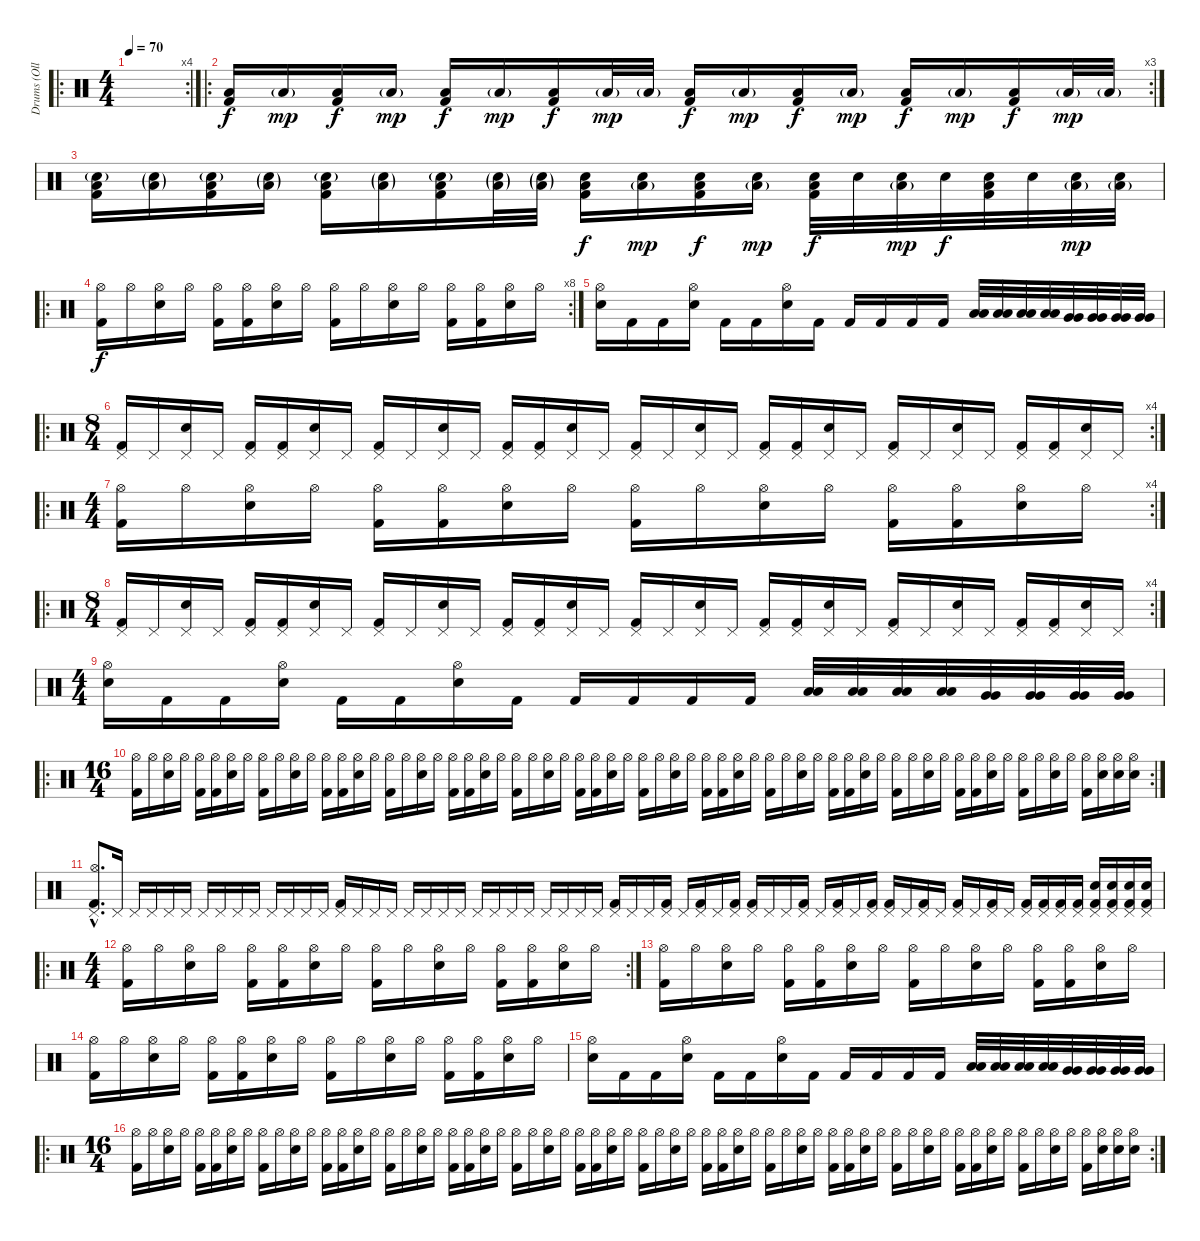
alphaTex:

\track ("Drums (Ollie)" "Drums (Oll") {instrument percussion}
\staff {score}
\articulation defaults
\ro
\rc 4
\ts (4 4)
\tempo 70
\clef neutral
\ks c
|
\ro
\rc 3
("Low Tom (hit)" "Kick (hit) 2").16 "Low Tom (hit)"{g}.16{dy mp} ("Low Tom (hit)" "Kick (hit) 2").16{dy f} "Low Tom (hit)"{g}.16{dy mp} ("Low Tom (hit)" "Kick (hit) 2").16{dy f} "Low Tom (hit)"{g}.16{dy mp} ("Low Tom (hit)" "Kick (hit) 2").16{dy f} "Low Tom (hit)"{g}.32{dy mp} "Low Tom (hit)"{g}.32 ("Low Tom (hit)" "Kick (hit) 2").16{dy f} "Low Tom (hit)"{g}.16{dy mp} ("Low Tom (hit)" "Kick (hit) 2").16{dy f} "Low Tom (hit)"{g}.16{dy mp} ("Low Tom (hit)" "Kick (hit) 2").16{dy f} "Low Tom (hit)"{g}.16{dy mp} ("Low Tom (hit)" "Kick (hit) 2").16{dy f} "Low Tom (hit)"{g}.32{dy mp} "Low Tom (hit)"{g}.32 |
("Electric Snare (hit)"{g} "Low Tom (hit)" "Kick (hit) 2").16 ("Electric Snare (hit)"{g} "Low Tom (hit)"{g}).16 ("Electric Snare (hit)"{g} "Low Tom (hit)" "Kick (hit) 2").16 ("Electric Snare (hit)"{g} "Low Tom (hit)"{g}).16 ("Electric Snare (hit)"{g} "Low Tom (hit)" "Kick (hit) 2").16 ("Electric Snare (hit)"{g} "Low Tom (hit)"{g}).16 ("Electric Snare (hit)"{g} "Low Tom (hit)" "Kick (hit) 2").16 ("Electric Snare (hit)"{g} "Low Tom (hit)"{g}).32 ("Electric Snare (hit)"{g} "Low Tom (hit)"{g}).32 ("Electric Snare (hit)" "Low Tom (hit)" "Kick (hit) 2").16{dy f} ("Electric Snare (hit)" "Low Tom (hit)"{g}).16{dy mp} ("Electric Snare (hit)" "Low Tom (hit)" "Kick (hit) 2").16{dy f} ("Electric Snare (hit)" "Low Tom (hit)"{g}).16{dy mp} ("Electric Snare (hit)" "Low Tom (hit)" "Kick (hit) 2").32{dy f} "Electric Snare (hit)".32 ("Electric Snare (hit)" "Low Tom (hit)"{g}).32{dy mp} "Electric Snare (hit)".32{dy f} ("Electric Snare (hit)" "Low Tom (hit)" "Kick (hit) 2").32 "Electric Snare (hit)".32 ("Electric Snare (hit)" "Low Tom (hit)"{g}).32{dy mp} ("Electric Snare (hit)" "Low Tom (hit)"{g}).32 |
\ro
\rc 8
("Hi-Hat (open)" "Kick (hit) 2").16{dy f} "Hi-Hat (open)".16 ("Hi-Hat (open)" "Electric Snare (hit)").16 "Hi-Hat (open)".16 ("Hi-Hat (open)" "Kick (hit) 2").16 ("Hi-Hat (open)" "Kick (hit) 2").16 ("Hi-Hat (open)" "Electric Snare (hit)").16 "Hi-Hat (open)".16 ("Hi-Hat (open)" "Kick (hit) 2").16 "Hi-Hat (open)".16 ("Hi-Hat (open)" "Electric Snare (hit)").16 "Hi-Hat (open)".16 ("Hi-Hat (open)" "Kick (hit) 2").16 ("Hi-Hat (open)" "Kick (hit) 2").16 ("Hi-Hat (open)" "Electric Snare (hit)").16 "Hi-Hat (open)".16 |
("Hi-Hat (open)" "Electric Snare (hit)").16 "Kick (hit) 2".16 "Kick (hit) 2".16 ("Hi-Hat (open)" "Electric Snare (hit)").16 "Kick (hit) 2".16 "Kick (hit) 2".16 ("Hi-Hat (open)" "Electric Snare (hit)").16 "Kick (hit) 2".16 "Kick (hit) 2".16 "Kick (hit) 2".16 "Kick (hit) 2".16 "Kick (hit) 2".16 ("Low Tom (hit)" "Low Tom (hit)").32 ("Low Tom (hit)" "Low Tom (hit)").32 ("Low Tom (hit)" "Low Tom (hit)").32 ("Low Tom (hit)" "Low Tom (hit)").32 ("Very Low Tom (hit)" "Very Low Tom (hit)").32 ("Very Low Tom (hit)" "Very Low Tom (hit)").32 ("Very Low Tom (hit)" "Very Low Tom (hit)").32 ("Very Low Tom (hit)" "Very Low Tom (hit)").32 |
\ro
\rc 4
\ts (8 4)
("Pedal Hi-Hat (hit)" "Kick (hit) 2").16 "Pedal Hi-Hat (hit)".16 ("Pedal Hi-Hat (hit)" "Electric Snare (hit)").16 "Pedal Hi-Hat (hit)".16 ("Pedal Hi-Hat (hit)" "Kick (hit) 2").16 ("Pedal Hi-Hat (hit)" "Kick (hit) 2").16 ("Pedal Hi-Hat (hit)" "Electric Snare (hit)").16 "Pedal Hi-Hat (hit)".16 ("Pedal Hi-Hat (hit)" "Kick (hit) 2").16 "Pedal Hi-Hat (hit)".16 ("Pedal Hi-Hat (hit)" "Electric Snare (hit)").16 "Pedal Hi-Hat (hit)".16 ("Pedal Hi-Hat (hit)" "Kick (hit) 2").16 ("Pedal Hi-Hat (hit)" "Kick (hit) 2").16 ("Pedal Hi-Hat (hit)" "Electric Snare (hit)").16 "Pedal Hi-Hat (hit)".16 ("Pedal Hi-Hat (hit)" "Kick (hit) 2").16 "Pedal Hi-Hat (hit)".16 ("Pedal Hi-Hat (hit)" "Electric Snare (hit)").16 "Pedal Hi-Hat (hit)".16 ("Pedal Hi-Hat (hit)" "Kick (hit) 2").16 ("Pedal Hi-Hat (hit)" "Kick (hit) 2").16 ("Pedal Hi-Hat (hit)" "Electric Snare (hit)").16 "Pedal Hi-Hat (hit)".16 ("Pedal Hi-Hat (hit)" "Kick (hit) 2").16 "Pedal Hi-Hat (hit)".16 ("Pedal Hi-Hat (hit)" "Electric Snare (hit)").16 "Pedal Hi-Hat (hit)".16 ("Pedal Hi-Hat (hit)" "Kick (hit) 2").16 ("Pedal Hi-Hat (hit)" "Kick (hit) 2").16 ("Pedal Hi-Hat (hit)" "Electric Snare (hit)").16 "Pedal Hi-Hat (hit)".16 |
\ro
\rc 4
\ts (4 4)
("Hi-Hat (open)" "Kick (hit) 2").16 "Hi-Hat (open)".16 ("Hi-Hat (open)" "Electric Snare (hit)").16 "Hi-Hat (open)".16 ("Hi-Hat (open)" "Kick (hit) 2").16 ("Hi-Hat (open)" "Kick (hit) 2").16 ("Hi-Hat (open)" "Electric Snare (hit)").16 "Hi-Hat (open)".16 ("Hi-Hat (open)" "Kick (hit) 2").16 "Hi-Hat (open)".16 ("Hi-Hat (open)" "Electric Snare (hit)").16 "Hi-Hat (open)".16 ("Hi-Hat (open)" "Kick (hit) 2").16 ("Hi-Hat (open)" "Kick (hit) 2").16 ("Hi-Hat (open)" "Electric Snare (hit)").16 "Hi-Hat (open)".16 |
\ro
\rc 4
\ts (8 4)
("Pedal Hi-Hat (hit)" "Kick (hit) 2").16 "Pedal Hi-Hat (hit)".16 ("Pedal Hi-Hat (hit)" "Electric Snare (hit)").16 "Pedal Hi-Hat (hit)".16 ("Pedal Hi-Hat (hit)" "Kick (hit) 2").16 ("Pedal Hi-Hat (hit)" "Kick (hit) 2").16 ("Pedal Hi-Hat (hit)" "Electric Snare (hit)").16 "Pedal Hi-Hat (hit)".16 ("Pedal Hi-Hat (hit)" "Kick (hit) 2").16 "Pedal Hi-Hat (hit)".16 ("Pedal Hi-Hat (hit)" "Electric Snare (hit)").16 "Pedal Hi-Hat (hit)".16 ("Pedal Hi-Hat (hit)" "Kick (hit) 2").16 ("Pedal Hi-Hat (hit)" "Kick (hit) 2").16 ("Pedal Hi-Hat (hit)" "Electric Snare (hit)").16 "Pedal Hi-Hat (hit)".16 ("Pedal Hi-Hat (hit)" "Kick (hit) 2").16 "Pedal Hi-Hat (hit)".16 ("Pedal Hi-Hat (hit)" "Electric Snare (hit)").16 "Pedal Hi-Hat (hit)".16 ("Pedal Hi-Hat (hit)" "Kick (hit) 2").16 ("Pedal Hi-Hat (hit)" "Kick (hit) 2").16 ("Pedal Hi-Hat (hit)" "Electric Snare (hit)").16 "Pedal Hi-Hat (hit)".16 ("Pedal Hi-Hat (hit)" "Kick (hit) 2").16 "Pedal Hi-Hat (hit)".16 ("Pedal Hi-Hat (hit)" "Electric Snare (hit)").16 "Pedal Hi-Hat (hit)".16 ("Pedal Hi-Hat (hit)" "Kick (hit) 2").16 ("Pedal Hi-Hat (hit)" "Kick (hit) 2").16 ("Pedal Hi-Hat (hit)" "Electric Snare (hit)").16 "Pedal Hi-Hat (hit)".16 |
\ts (4 4)
("Hi-Hat (open)" "Electric Snare (hit)").16 "Kick (hit) 2".16 "Kick (hit) 2".16 ("Hi-Hat (open)" "Electric Snare (hit)").16 "Kick (hit) 2".16 "Kick (hit) 2".16 ("Hi-Hat (open)" "Electric Snare (hit)").16 "Kick (hit) 2".16 "Kick (hit) 2".16 "Kick (hit) 2".16 "Kick (hit) 2".16 "Kick (hit) 2".16 ("Low Tom (hit)" "Low Tom (hit)").32 ("Low Tom (hit)" "Low Tom (hit)").32 ("Low Tom (hit)" "Low Tom (hit)").32 ("Low Tom (hit)" "Low Tom (hit)").32 ("Very Low Tom (hit)" "Very Low Tom (hit)").32 ("Very Low Tom (hit)" "Very Low Tom (hit)").32 ("Very Low Tom (hit)" "Very Low Tom (hit)").32 ("Very Low Tom (hit)" "Very Low Tom (hit)").32 |
\ro
\rc 2
\ts (16 4)
("Hi-Hat (open)" "Kick (hit) 2").16 "Hi-Hat (open)".16 ("Hi-Hat (open)" "Electric Snare (hit)").16 "Hi-Hat (open)".16 ("Hi-Hat (open)" "Kick (hit) 2").16 ("Hi-Hat (open)" "Kick (hit) 2").16 ("Hi-Hat (open)" "Electric Snare (hit)").16 "Hi-Hat (open)".16 ("Hi-Hat (open)" "Kick (hit) 2").16 "Hi-Hat (open)".16 ("Hi-Hat (open)" "Electric Snare (hit)").16 "Hi-Hat (open)".16 ("Hi-Hat (open)" "Kick (hit) 2").16 ("Hi-Hat (open)" "Kick (hit) 2").16 ("Hi-Hat (open)" "Electric Snare (hit)").16 "Hi-Hat (open)".16 ("Hi-Hat (open)" "Kick (hit) 2").16 "Hi-Hat (open)".16 ("Hi-Hat (open)" "Electric Snare (hit)").16 "Hi-Hat (open)".16 ("Hi-Hat (open)" "Kick (hit) 2").16 ("Hi-Hat (open)" "Kick (hit) 2").16 ("Hi-Hat (open)" "Electric Snare (hit)").16 "Hi-Hat (open)".16 ("Hi-Hat (open)" "Kick (hit) 2").16 "Hi-Hat (open)".16 ("Hi-Hat (open)" "Electric Snare (hit)").16 "Hi-Hat (open)".16 ("Hi-Hat (open)" "Kick (hit) 2").16 ("Hi-Hat (open)" "Kick (hit) 2").16 ("Hi-Hat (open)" "Electric Snare (hit)").16 "Hi-Hat (open)".16 ("Hi-Hat (open)" "Kick (hit) 2").16 "Hi-Hat (open)".16 ("Hi-Hat (open)" "Electric Snare (hit)").16 "Hi-Hat (open)".16 ("Hi-Hat (open)" "Kick (hit) 2").16 ("Hi-Hat (open)" "Kick (hit) 2").16 ("Hi-Hat (open)" "Electric Snare (hit)").16 "Hi-Hat (open)".16 ("Hi-Hat (open)" "Kick (hit) 2").16 "Hi-Hat (open)".16 ("Hi-Hat (open)" "Electric Snare (hit)").16 "Hi-Hat (open)".16 ("Hi-Hat (open)" "Kick (hit) 2").16 ("Hi-Hat (open)" "Kick (hit) 2").16 ("Hi-Hat (open)" "Electric Snare (hit)").16 "Hi-Hat (open)".16 ("Hi-Hat (open)" "Kick (hit) 2").16 "Hi-Hat (open)".16 ("Hi-Hat (open)" "Electric Snare (hit)").16 "Hi-Hat (open)".16 ("Hi-Hat (open)" "Kick (hit) 2").16 ("Hi-Hat (open)" "Kick (hit) 2").16 ("Hi-Hat (open)" "Electric Snare (hit)").16 "Hi-Hat (open)".16 ("Hi-Hat (open)" "Kick (hit) 2").16 "Hi-Hat (open)".16 ("Hi-Hat (open)" "Electric Snare (hit)").16 "Hi-Hat (open)".16 ("Hi-Hat (open)" "Kick (hit) 2").16 ("Hi-Hat (open)" "Electric Snare (hit)").16 ("Hi-Hat (open)" "Electric Snare (hit)").16 ("Hi-Hat (open)" "Electric Snare (hit)").16 |
("Pedal Hi-Hat (hit)"{hac} "Hi-Hat (open)"{hac} "Kick (hit) 2"{hac}).8{d} "Pedal Hi-Hat (hit)".16 "Pedal Hi-Hat (hit)".16 "Pedal Hi-Hat (hit)".16 "Pedal Hi-Hat (hit)".16 "Pedal Hi-Hat (hit)".16 "Pedal Hi-Hat (hit)".16 "Pedal Hi-Hat (hit)".16 "Pedal Hi-Hat (hit)".16 "Pedal Hi-Hat (hit)".16 "Pedal Hi-Hat (hit)".16 "Pedal Hi-Hat (hit)".16 "Pedal Hi-Hat (hit)".16 "Pedal Hi-Hat (hit)".16 ("Pedal Hi-Hat (hit)" "Kick (hit) 2").16 "Pedal Hi-Hat (hit)".16 "Pedal Hi-Hat (hit)".16 "Pedal Hi-Hat (hit)".16 "Pedal Hi-Hat (hit)".16 "Pedal Hi-Hat (hit)".16 "Pedal Hi-Hat (hit)".16 "Pedal Hi-Hat (hit)".16 "Pedal Hi-Hat (hit)".16 "Pedal Hi-Hat (hit)".16 "Pedal Hi-Hat (hit)".16 "Pedal Hi-Hat (hit)".16 "Pedal Hi-Hat (hit)".16 "Pedal Hi-Hat (hit)".16 "Pedal Hi-Hat (hit)".16 "Pedal Hi-Hat (hit)".16 ("Pedal Hi-Hat (hit)" "Kick (hit) 2").16 "Pedal Hi-Hat (hit)".16 "Pedal Hi-Hat (hit)".16 ("Pedal Hi-Hat (hit)" "Kick (hit) 2").16 "Pedal Hi-Hat (hit)".16 ("Pedal Hi-Hat (hit)" "Kick (hit) 2").16 "Pedal Hi-Hat (hit)".16 ("Pedal Hi-Hat (hit)" "Kick (hit) 2").16 ("Pedal Hi-Hat (hit)" "Kick (hit) 2").16 "Pedal Hi-Hat (hit)".16 "Pedal Hi-Hat (hit)".16 ("Pedal Hi-Hat (hit)" "Kick (hit) 2").16 "Pedal Hi-Hat (hit)".16 ("Pedal Hi-Hat (hit)" "Kick (hit) 2").16 "Pedal Hi-Hat (hit)".16 ("Pedal Hi-Hat (hit)" "Kick (hit) 2").16 ("Pedal Hi-Hat (hit)" "Kick (hit) 2").16 "Pedal Hi-Hat (hit)".16 ("Pedal Hi-Hat (hit)" "Kick (hit) 2").16 "Pedal Hi-Hat (hit)".16 ("Pedal Hi-Hat (hit)" "Kick (hit) 2").16 "Pedal Hi-Hat (hit)".16 ("Pedal Hi-Hat (hit)" "Kick (hit) 2").16 "Pedal Hi-Hat (hit)".16 ("Pedal Hi-Hat (hit)" "Kick (hit) 2").16 ("Pedal Hi-Hat (hit)" "Kick (hit) 2").16 ("Pedal Hi-Hat (hit)" "Kick (hit) 2").16 ("Pedal Hi-Hat (hit)" "Kick (hit) 2").16 ("Pedal Hi-Hat (hit)" "Electric Snare (hit)" "Kick (hit) 2").16 ("Pedal Hi-Hat (hit)" "Electric Snare (hit)" "Kick (hit) 2").16 ("Pedal Hi-Hat (hit)" "Electric Snare (hit)" "Kick (hit) 2").16 ("Pedal Hi-Hat (hit)" "Electric Snare (hit)" "Kick (hit) 2").16 |
\ro
\rc 2
\ts (4 4)
("Hi-Hat (open)" "Kick (hit) 2").16 "Hi-Hat (open)".16 ("Hi-Hat (open)" "Electric Snare (hit)").16 "Hi-Hat (open)".16 ("Hi-Hat (open)" "Kick (hit) 2").16 ("Hi-Hat (open)" "Kick (hit) 2").16 ("Hi-Hat (open)" "Electric Snare (hit)").16 "Hi-Hat (open)".16 ("Hi-Hat (open)" "Kick (hit) 2").16 "Hi-Hat (open)".16 ("Hi-Hat (open)" "Electric Snare (hit)").16 "Hi-Hat (open)".16 ("Hi-Hat (open)" "Kick (hit) 2").16 ("Hi-Hat (open)" "Kick (hit) 2").16 ("Hi-Hat (open)" "Electric Snare (hit)").16 "Hi-Hat (open)".16 |
("Hi-Hat (open)" "Kick (hit) 2").16 "Hi-Hat (open)".16 ("Hi-Hat (open)" "Electric Snare (hit)").16 "Hi-Hat (open)".16 ("Hi-Hat (open)" "Kick (hit) 2").16 ("Hi-Hat (open)" "Kick (hit) 2").16 ("Hi-Hat (open)" "Electric Snare (hit)").16 "Hi-Hat (open)".16 ("Hi-Hat (open)" "Kick (hit) 2").16 "Hi-Hat (open)".16 ("Hi-Hat (open)" "Electric Snare (hit)").16 "Hi-Hat (open)".16 ("Hi-Hat (open)" "Kick (hit) 2").16 ("Hi-Hat (open)" "Kick (hit) 2").16 ("Hi-Hat (open)" "Electric Snare (hit)").16 "Hi-Hat (open)".16 |
("Hi-Hat (open)" "Kick (hit) 2").16 "Hi-Hat (open)".16 ("Hi-Hat (open)" "Electric Snare (hit)").16 "Hi-Hat (open)".16 ("Hi-Hat (open)" "Kick (hit) 2").16 ("Hi-Hat (open)" "Kick (hit) 2").16 ("Hi-Hat (open)" "Electric Snare (hit)").16 "Hi-Hat (open)".16 ("Hi-Hat (open)" "Kick (hit) 2").16 "Hi-Hat (open)".16 ("Hi-Hat (open)" "Electric Snare (hit)").16 "Hi-Hat (open)".16 ("Hi-Hat (open)" "Kick (hit) 2").16 ("Hi-Hat (open)" "Kick (hit) 2").16 ("Hi-Hat (open)" "Electric Snare (hit)").16 "Hi-Hat (open)".16 |
("Hi-Hat (open)" "Electric Snare (hit)").16 "Kick (hit) 2".16 "Kick (hit) 2".16 ("Hi-Hat (open)" "Electric Snare (hit)").16 "Kick (hit) 2".16 "Kick (hit) 2".16 ("Hi-Hat (open)" "Electric Snare (hit)").16 "Kick (hit) 2".16 "Kick (hit) 2".16 "Kick (hit) 2".16 "Kick (hit) 2".16 "Kick (hit) 2".16 ("Low Tom (hit)" "Low Tom (hit)").32 ("Low Tom (hit)" "Low Tom (hit)").32 ("Low Tom (hit)" "Low Tom (hit)").32 ("Low Tom (hit)" "Low Tom (hit)").32 ("Very Low Tom (hit)" "Very Low Tom (hit)").32 ("Very Low Tom (hit)" "Very Low Tom (hit)").32 ("Very Low Tom (hit)" "Very Low Tom (hit)").32 ("Very Low Tom (hit)" "Very Low Tom (hit)").32 |
\ro
\rc 2
\ts (16 4)
("Hi-Hat (open)" "Kick (hit) 2").16 "Hi-Hat (open)".16 ("Hi-Hat (open)" "Electric Snare (hit)").16 "Hi-Hat (open)".16 ("Hi-Hat (open)" "Kick (hit) 2").16 ("Hi-Hat (open)" "Kick (hit) 2").16 ("Hi-Hat (open)" "Electric Snare (hit)").16 "Hi-Hat (open)".16 ("Hi-Hat (open)" "Kick (hit) 2").16 "Hi-Hat (open)".16 ("Hi-Hat (open)" "Electric Snare (hit)").16 "Hi-Hat (open)".16 ("Hi-Hat (open)" "Kick (hit) 2").16 ("Hi-Hat (open)" "Kick (hit) 2").16 ("Hi-Hat (open)" "Electric Snare (hit)").16 "Hi-Hat (open)".16 ("Hi-Hat (open)" "Kick (hit) 2").16 "Hi-Hat (open)".16 ("Hi-Hat (open)" "Electric Snare (hit)").16 "Hi-Hat (open)".16 ("Hi-Hat (open)" "Kick (hit) 2").16 ("Hi-Hat (open)" "Kick (hit) 2").16 ("Hi-Hat (open)" "Electric Snare (hit)").16 "Hi-Hat (open)".16 ("Hi-Hat (open)" "Kick (hit) 2").16 "Hi-Hat (open)".16 ("Hi-Hat (open)" "Electric Snare (hit)").16 "Hi-Hat (open)".16 ("Hi-Hat (open)" "Kick (hit) 2").16 ("Hi-Hat (open)" "Kick (hit) 2").16 ("Hi-Hat (open)" "Electric Snare (hit)").16 "Hi-Hat (open)".16 ("Hi-Hat (open)" "Kick (hit) 2").16 "Hi-Hat (open)".16 ("Hi-Hat (open)" "Electric Snare (hit)").16 "Hi-Hat (open)".16 ("Hi-Hat (open)" "Kick (hit) 2").16 ("Hi-Hat (open)" "Kick (hit) 2").16 ("Hi-Hat (open)" "Electric Snare (hit)").16 "Hi-Hat (open)".16 ("Hi-Hat (open)" "Kick (hit) 2").16 "Hi-Hat (open)".16 ("Hi-Hat (open)" "Electric Snare (hit)").16 "Hi-Hat (open)".16 ("Hi-Hat (open)" "Kick (hit) 2").16 ("Hi-Hat (open)" "Kick (hit) 2").16 ("Hi-Hat (open)" "Electric Snare (hit)").16 "Hi-Hat (open)".16 ("Hi-Hat (open)" "Kick (hit) 2").16 "Hi-Hat (open)".16 ("Hi-Hat (open)" "Electric Snare (hit)").16 "Hi-Hat (open)".16 ("Hi-Hat (open)" "Kick (hit) 2").16 ("Hi-Hat (open)" "Kick (hit) 2").16 ("Hi-Hat (open)" "Electric Snare (hit)").16 "Hi-Hat (open)".16 ("Hi-Hat (open)" "Kick (hit) 2").16 "Hi-Hat (open)".16 ("Hi-Hat (open)" "Electric Snare (hit)").16 "Hi-Hat (open)".16 ("Hi-Hat (open)" "Kick (hit) 2").16 ("Hi-Hat (open)" "Electric Snare (hit)").16 ("Hi-Hat (open)" "Electric Snare (hit)").16 ("Hi-Hat (open)" "Electric Snare (hit)").16
